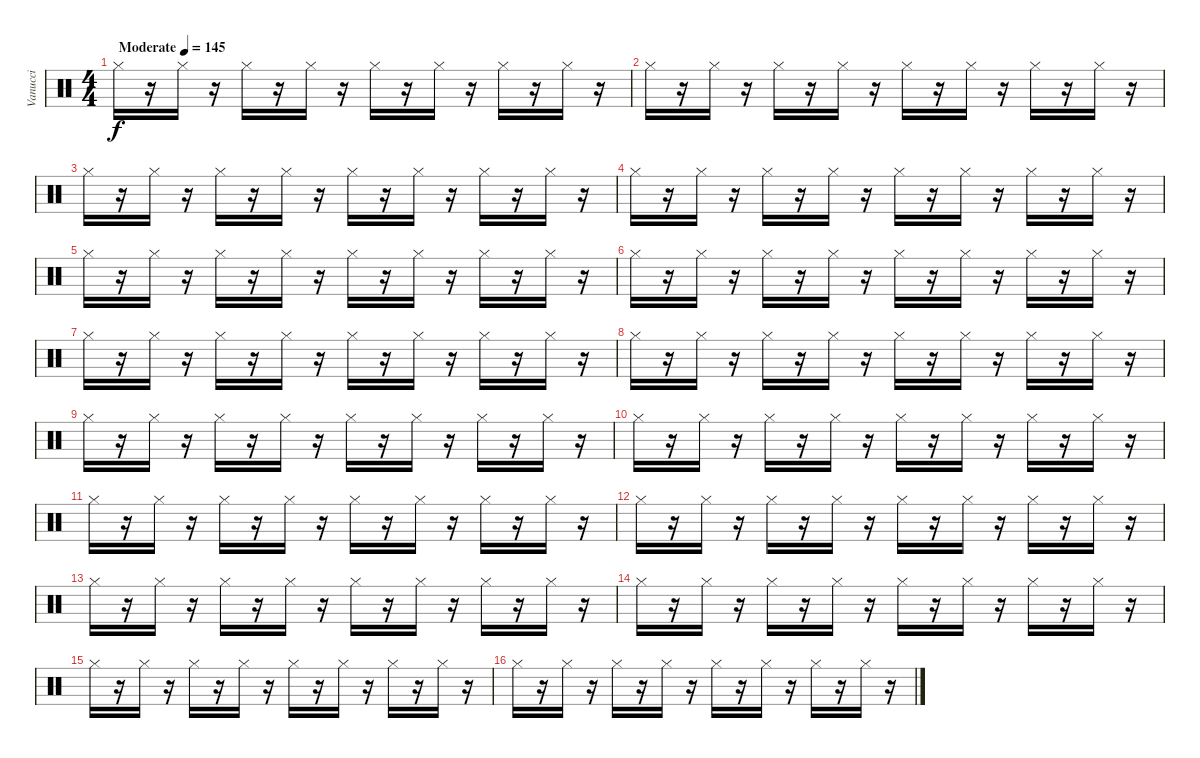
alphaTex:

\track ("Vanucci" "Vanucci") {instrument percussion}
\staff {score}
\articulation defaults
\ts (4 4)
\tempo (145 "Moderate")
\clef neutral
\ks c "Hi-Hat (closed)".16{dy f}
r.16 "Hi-Hat (closed)".16 r.16 "Hi-Hat (closed)".16 r.16 "Hi-Hat (closed)".16 r.16 "Hi-Hat (closed)".16 r.16 "Hi-Hat (closed)".16 r.16 "Hi-Hat (closed)".16 r.16 "Hi-Hat (closed)".16 r.16 |
"Hi-Hat (closed)".16 r.16 "Hi-Hat (closed)".16 r.16 "Hi-Hat (closed)".16 r.16 "Hi-Hat (closed)".16 r.16 "Hi-Hat (closed)".16 r.16 "Hi-Hat (closed)".16 r.16 "Hi-Hat (closed)".16 r.16 "Hi-Hat (closed)".16 r.16 |
"Hi-Hat (closed)".16 r.16 "Hi-Hat (closed)".16 r.16 "Hi-Hat (closed)".16 r.16 "Hi-Hat (closed)".16 r.16 "Hi-Hat (closed)".16 r.16 "Hi-Hat (closed)".16 r.16 "Hi-Hat (closed)".16 r.16 "Hi-Hat (closed)".16 r.16 |
"Hi-Hat (closed)".16 r.16 "Hi-Hat (closed)".16 r.16 "Hi-Hat (closed)".16 r.16 "Hi-Hat (closed)".16 r.16 "Hi-Hat (closed)".16 r.16 "Hi-Hat (closed)".16 r.16 "Hi-Hat (closed)".16 r.16 "Hi-Hat (closed)".16 r.16 |
"Hi-Hat (closed)".16 r.16 "Hi-Hat (closed)".16 r.16 "Hi-Hat (closed)".16 r.16 "Hi-Hat (closed)".16 r.16 "Hi-Hat (closed)".16 r.16 "Hi-Hat (closed)".16 r.16 "Hi-Hat (closed)".16 r.16 "Hi-Hat (closed)".16 r.16 |
"Hi-Hat (closed)".16 r.16 "Hi-Hat (closed)".16 r.16 "Hi-Hat (closed)".16 r.16 "Hi-Hat (closed)".16 r.16 "Hi-Hat (closed)".16 r.16 "Hi-Hat (closed)".16 r.16 "Hi-Hat (closed)".16 r.16 "Hi-Hat (closed)".16 r.16 |
"Hi-Hat (closed)".16 r.16 "Hi-Hat (closed)".16 r.16 "Hi-Hat (closed)".16 r.16 "Hi-Hat (closed)".16 r.16 "Hi-Hat (closed)".16 r.16 "Hi-Hat (closed)".16 r.16 "Hi-Hat (closed)".16 r.16 "Hi-Hat (closed)".16 r.16 |
"Hi-Hat (closed)".16 r.16 "Hi-Hat (closed)".16 r.16 "Hi-Hat (closed)".16 r.16 "Hi-Hat (closed)".16 r.16 "Hi-Hat (closed)".16 r.16 "Hi-Hat (closed)".16 r.16 "Hi-Hat (closed)".16 r.16 "Hi-Hat (closed)".16 r.16 |
"Hi-Hat (closed)".16 r.16 "Hi-Hat (closed)".16 r.16 "Hi-Hat (closed)".16 r.16 "Hi-Hat (closed)".16 r.16 "Hi-Hat (closed)".16 r.16 "Hi-Hat (closed)".16 r.16 "Hi-Hat (closed)".16 r.16 "Hi-Hat (closed)".16 r.16 |
"Hi-Hat (closed)".16 r.16 "Hi-Hat (closed)".16 r.16 "Hi-Hat (closed)".16 r.16 "Hi-Hat (closed)".16 r.16 "Hi-Hat (closed)".16 r.16 "Hi-Hat (closed)".16 r.16 "Hi-Hat (closed)".16 r.16 "Hi-Hat (closed)".16 r.16 |
"Hi-Hat (closed)".16 r.16 "Hi-Hat (closed)".16 r.16 "Hi-Hat (closed)".16 r.16 "Hi-Hat (closed)".16 r.16 "Hi-Hat (closed)".16 r.16 "Hi-Hat (closed)".16 r.16 "Hi-Hat (closed)".16 r.16 "Hi-Hat (closed)".16 r.16 |
"Hi-Hat (closed)".16 r.16 "Hi-Hat (closed)".16 r.16 "Hi-Hat (closed)".16 r.16 "Hi-Hat (closed)".16 r.16 "Hi-Hat (closed)".16 r.16 "Hi-Hat (closed)".16 r.16 "Hi-Hat (closed)".16 r.16 "Hi-Hat (closed)".16 r.16 |
"Hi-Hat (closed)".16 r.16 "Hi-Hat (closed)".16 r.16 "Hi-Hat (closed)".16 r.16 "Hi-Hat (closed)".16 r.16 "Hi-Hat (closed)".16 r.16 "Hi-Hat (closed)".16 r.16 "Hi-Hat (closed)".16 r.16 "Hi-Hat (closed)".16 r.16 |
"Hi-Hat (closed)".16 r.16 "Hi-Hat (closed)".16 r.16 "Hi-Hat (closed)".16 r.16 "Hi-Hat (closed)".16 r.16 "Hi-Hat (closed)".16 r.16 "Hi-Hat (closed)".16 r.16 "Hi-Hat (closed)".16 r.16 "Hi-Hat (closed)".16 r.16 |
"Hi-Hat (closed)".16 r.16 "Hi-Hat (closed)".16 r.16 "Hi-Hat (closed)".16 r.16 "Hi-Hat (closed)".16 r.16 "Hi-Hat (closed)".16 r.16 "Hi-Hat (closed)".16 r.16 "Hi-Hat (closed)".16 r.16 "Hi-Hat (closed)".16 r.16 |
"Hi-Hat (closed)".16 r.16 "Hi-Hat (closed)".16 r.16 "Hi-Hat (closed)".16 r.16 "Hi-Hat (closed)".16 r.16 "Hi-Hat (closed)".16 r.16 "Hi-Hat (closed)".16 r.16 "Hi-Hat (closed)".16 r.16 "Hi-Hat (closed)".16 r.16
